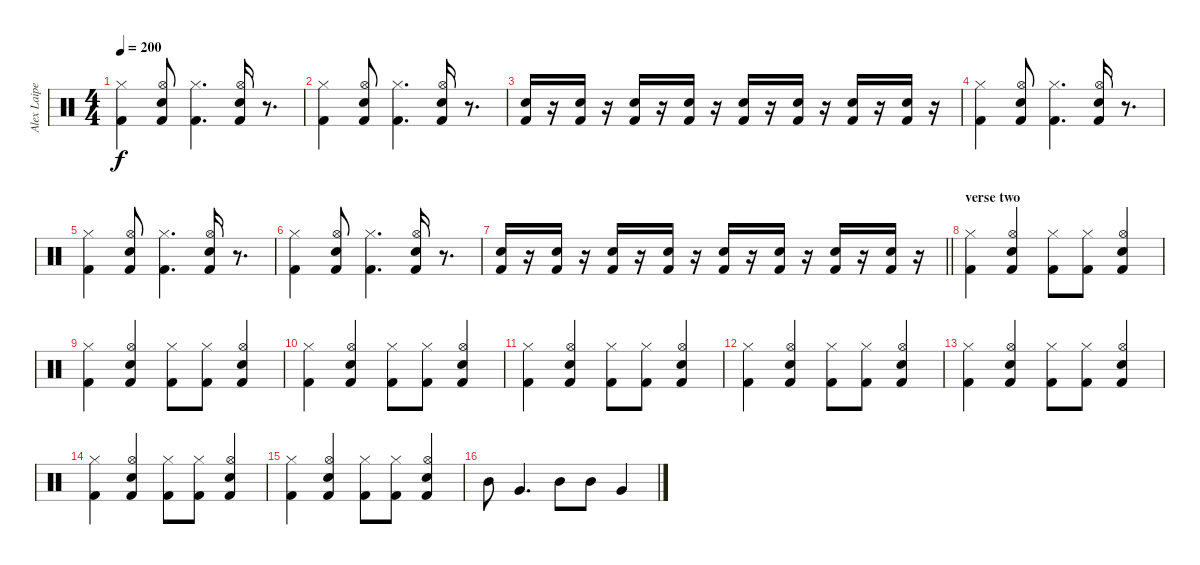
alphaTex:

\track ("Alex Laipeneiks - Drums" "Alex Laipe") {instrument percussion}
\staff {score}
\articulation defaults
\ts (4 4)
\tempo 200
\clef neutral
\ks c
("Hi-Hat (closed)" "Kick (hit) 2").4{dy f} ("Hi-Hat (open)" "Snare (hit) 2" "Kick (hit) 2").8 ("Hi-Hat (closed)" "Kick (hit) 2").4{d} ("Hi-Hat (open)" "Snare (hit) 2" "Kick (hit) 2").16 r.8{d} |
("Hi-Hat (closed)" "Kick (hit) 2").4 ("Hi-Hat (open)" "Snare (hit) 2" "Kick (hit) 2").8 ("Hi-Hat (closed)" "Kick (hit) 2").4{d} ("Hi-Hat (open)" "Snare (hit) 2" "Kick (hit) 2").16 r.8{d} |
("Snare (hit) 2" "Kick (hit) 2").16 r.16 ("Snare (hit) 2" "Kick (hit) 2").16 r.16 ("Snare (hit) 2" "Kick (hit) 2").16 r.16 ("Snare (hit) 2" "Kick (hit) 2").16 r.16 ("Snare (hit) 2" "Kick (hit) 2").16 r.16 ("Snare (hit) 2" "Kick (hit) 2").16 r.16 ("Snare (hit) 2" "Kick (hit) 2").16 r.16 ("Snare (hit) 2" "Kick (hit) 2").16 r.16 |
("Hi-Hat (closed)" "Kick (hit) 2").4 ("Hi-Hat (open)" "Snare (hit) 2" "Kick (hit) 2").8 ("Hi-Hat (closed)" "Kick (hit) 2").4{d} ("Hi-Hat (open)" "Snare (hit) 2" "Kick (hit) 2").16 r.8{d} |
("Hi-Hat (closed)" "Kick (hit) 2").4 ("Hi-Hat (open)" "Snare (hit) 2" "Kick (hit) 2").8 ("Hi-Hat (closed)" "Kick (hit) 2").4{d} ("Hi-Hat (open)" "Snare (hit) 2" "Kick (hit) 2").16 r.8{d} |
("Hi-Hat (closed)" "Kick (hit) 2").4 ("Hi-Hat (open)" "Snare (hit) 2" "Kick (hit) 2").8 ("Hi-Hat (closed)" "Kick (hit) 2").4{d} ("Hi-Hat (open)" "Snare (hit) 2" "Kick (hit) 2").16 r.8{d} |
\barLineRight lightlight
("Snare (hit) 2" "Kick (hit) 2").16 r.16 ("Snare (hit) 2" "Kick (hit) 2").16 r.16 ("Snare (hit) 2" "Kick (hit) 2").16 r.16 ("Snare (hit) 2" "Kick (hit) 2").16 r.16 ("Snare (hit) 2" "Kick (hit) 2").16 r.16 ("Snare (hit) 2" "Kick (hit) 2").16 r.16 ("Snare (hit) 2" "Kick (hit) 2").16 r.16 ("Snare (hit) 2" "Kick (hit) 2").16 r.16 |
\section ("" "verse two")
("Hi-Hat (closed)" "Kick (hit) 2").4 ("Hi-Hat (open)" "Snare (hit) 2" "Kick (hit) 2").4 ("Hi-Hat (closed)" "Kick (hit) 2").8 ("Hi-Hat (closed)" "Kick (hit) 2").8 ("Hi-Hat (open)" "Snare (hit) 2" "Kick (hit) 2").4 |
("Hi-Hat (closed)" "Kick (hit) 2").4 ("Hi-Hat (open)" "Snare (hit) 2" "Kick (hit) 2").4 ("Hi-Hat (closed)" "Kick (hit) 2").8 ("Hi-Hat (closed)" "Kick (hit) 2").8 ("Hi-Hat (open)" "Snare (hit) 2" "Kick (hit) 2").4 |
("Hi-Hat (closed)" "Kick (hit) 2").4 ("Hi-Hat (open)" "Snare (hit) 2" "Kick (hit) 2").4 ("Hi-Hat (closed)" "Kick (hit) 2").8 ("Hi-Hat (closed)" "Kick (hit) 2").8 ("Hi-Hat (open)" "Snare (hit) 2" "Kick (hit) 2").4 |
("Hi-Hat (closed)" "Kick (hit) 2").4 ("Hi-Hat (open)" "Snare (hit) 2" "Kick (hit) 2").4 ("Hi-Hat (closed)" "Kick (hit) 2").8 ("Hi-Hat (closed)" "Kick (hit) 2").8 ("Hi-Hat (open)" "Snare (hit) 2" "Kick (hit) 2").4 |
("Hi-Hat (closed)" "Kick (hit) 2").4 ("Hi-Hat (open)" "Snare (hit) 2" "Kick (hit) 2").4 ("Hi-Hat (closed)" "Kick (hit) 2").8 ("Hi-Hat (closed)" "Kick (hit) 2").8 ("Hi-Hat (open)" "Snare (hit) 2" "Kick (hit) 2").4 |
("Hi-Hat (closed)" "Kick (hit) 2").4 ("Hi-Hat (open)" "Snare (hit) 2" "Kick (hit) 2").4 ("Hi-Hat (closed)" "Kick (hit) 2").8 ("Hi-Hat (closed)" "Kick (hit) 2").8 ("Hi-Hat (open)" "Snare (hit) 2" "Kick (hit) 2").4 |
("Hi-Hat (closed)" "Kick (hit) 2").4 ("Hi-Hat (open)" "Snare (hit) 2" "Kick (hit) 2").4 ("Hi-Hat (closed)" "Kick (hit) 2").8 ("Hi-Hat (closed)" "Kick (hit) 2").8 ("Hi-Hat (open)" "Snare (hit) 2" "Kick (hit) 2").4 |
("Hi-Hat (closed)" "Kick (hit) 2").4 ("Hi-Hat (open)" "Snare (hit) 2" "Kick (hit) 2").4 ("Hi-Hat (closed)" "Kick (hit) 2").8 ("Hi-Hat (closed)" "Kick (hit) 2").8 ("Hi-Hat (open)" "Snare (hit) 2" "Kick (hit) 2").4 |
"Mid Tom (hit)".8 "Very Low Tom (hit)".4{d} "Mid Tom (hit)".8 "Mid Tom (hit)".8 "Very Low Tom (hit)".4
